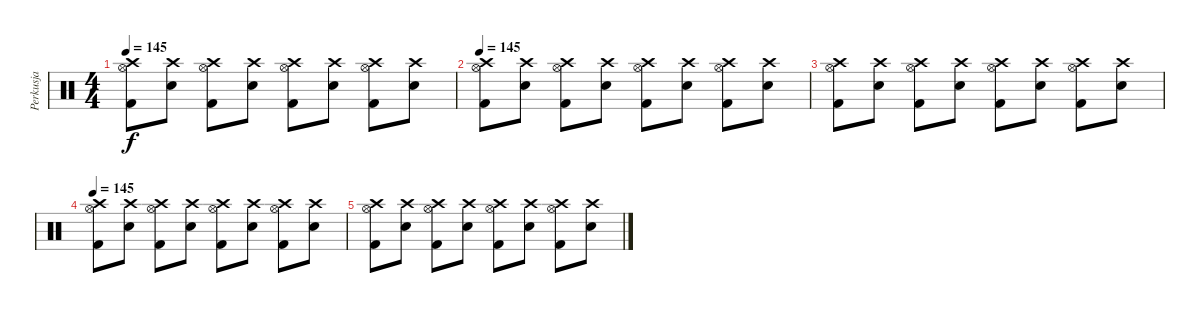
\track ("Perkusja" "Perkusja") {instrument percussion}
\staff {score}
\articulation defaults
\ts (4 4)
\tempo 145
\clef neutral
\ks c
("Crash high (hit)" "Hi-Hat (open)" "Kick (hit) 2").8{dy f} ("Crash high (hit)" "Electric Snare (hit)").8 ("Crash high (hit)" "Hi-Hat (open)" "Kick (hit) 2").8 ("Crash high (hit)" "Electric Snare (hit)").8 ("Crash high (hit)" "Hi-Hat (open)" "Kick (hit) 2").8 ("Crash high (hit)" "Electric Snare (hit)").8 ("Crash high (hit)" "Hi-Hat (open)" "Kick (hit) 2").8 ("Crash high (hit)" "Electric Snare (hit)").8 |
\tempo 145
("Crash high (hit)" "Hi-Hat (open)" "Kick (hit) 2").8 ("Crash high (hit)" "Electric Snare (hit)").8 ("Crash high (hit)" "Hi-Hat (open)" "Kick (hit) 2").8 ("Crash high (hit)" "Electric Snare (hit)").8 ("Crash high (hit)" "Hi-Hat (open)" "Kick (hit) 2").8 ("Crash high (hit)" "Electric Snare (hit)").8 ("Crash high (hit)" "Hi-Hat (open)" "Kick (hit) 2").8 ("Crash high (hit)" "Electric Snare (hit)").8 |
("Crash high (hit)" "Hi-Hat (open)" "Kick (hit) 2").8 ("Crash high (hit)" "Electric Snare (hit)").8 ("Crash high (hit)" "Hi-Hat (open)" "Kick (hit) 2").8 ("Crash high (hit)" "Electric Snare (hit)").8 ("Crash high (hit)" "Hi-Hat (open)" "Kick (hit) 2").8 ("Crash high (hit)" "Electric Snare (hit)").8 ("Crash high (hit)" "Hi-Hat (open)" "Kick (hit) 2").8 ("Crash high (hit)" "Electric Snare (hit)").8 |
\tempo 145
("Crash high (hit)" "Hi-Hat (open)" "Kick (hit) 2").8 ("Crash high (hit)" "Electric Snare (hit)").8 ("Crash high (hit)" "Hi-Hat (open)" "Kick (hit) 2").8 ("Crash high (hit)" "Electric Snare (hit)").8 ("Crash high (hit)" "Hi-Hat (open)" "Kick (hit) 2").8 ("Crash high (hit)" "Electric Snare (hit)").8 ("Crash high (hit)" "Hi-Hat (open)" "Kick (hit) 2").8 ("Crash high (hit)" "Electric Snare (hit)").8 |
("Crash high (hit)" "Hi-Hat (open)" "Kick (hit) 2").8 ("Crash high (hit)" "Electric Snare (hit)").8 ("Crash high (hit)" "Hi-Hat (open)" "Kick (hit) 2").8 ("Crash high (hit)" "Electric Snare (hit)").8 ("Crash high (hit)" "Hi-Hat (open)" "Kick (hit) 2").8 ("Crash high (hit)" "Electric Snare (hit)").8 ("Crash high (hit)" "Hi-Hat (open)" "Kick (hit) 2").8 ("Crash high (hit)" "Electric Snare (hit)").8
